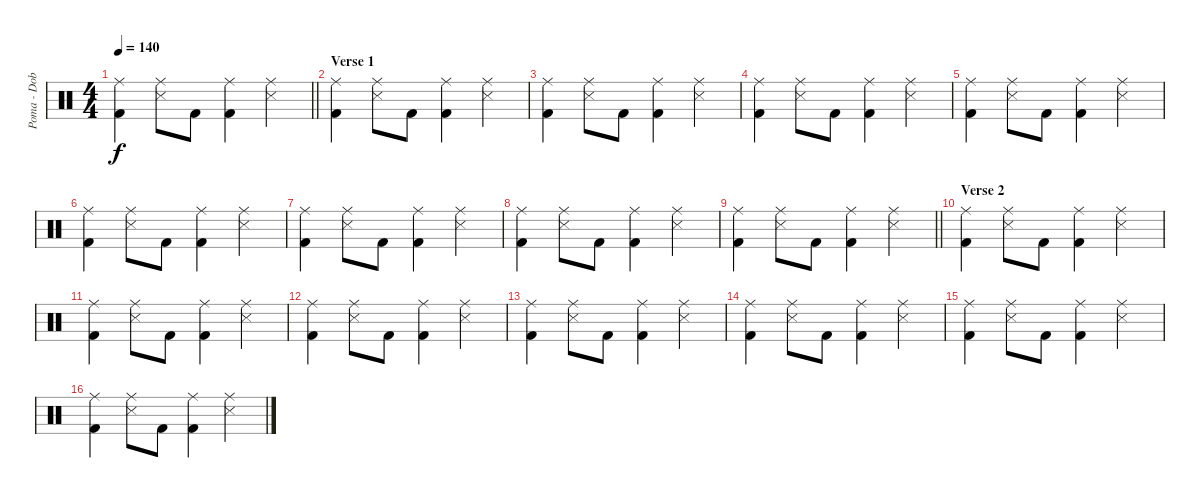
\track ("Poma - Dob" "Poma - Dob") {instrument percussion}
\staff {score}
\articulation defaults
\ts (4 4)
\tempo 140
\clef neutral
\barLineRight lightlight
\ks c
("Ride (middle)" "Kick (hit) 2").4{dy f} ("Ride (middle)" "Snare (side stick) 3").8 "Kick (hit) 2".8 ("Ride (middle)" "Kick (hit) 2").4 ("Ride (middle)" "Snare (side stick) 3").4 |
\section ("" "Verse 1")
("Ride (middle)" "Kick (hit) 2").4 ("Ride (middle)" "Snare (side stick) 3").8 "Kick (hit) 2".8 ("Ride (middle)" "Kick (hit) 2").4 ("Ride (middle)" "Snare (side stick) 3").4 |
("Ride (middle)" "Kick (hit) 2").4 ("Ride (middle)" "Snare (side stick) 3").8 "Kick (hit) 2".8 ("Ride (middle)" "Kick (hit) 2").4 ("Ride (middle)" "Snare (side stick) 3").4 |
("Ride (middle)" "Kick (hit) 2").4 ("Ride (middle)" "Snare (side stick) 3").8 "Kick (hit) 2".8 ("Ride (middle)" "Kick (hit) 2").4 ("Ride (middle)" "Snare (side stick) 3").4 |
("Ride (middle)" "Kick (hit) 2").4 ("Ride (middle)" "Snare (side stick) 3").8 "Kick (hit) 2".8 ("Ride (middle)" "Kick (hit) 2").4 ("Ride (middle)" "Snare (side stick) 3").4 |
("Ride (middle)" "Kick (hit) 2").4 ("Ride (middle)" "Snare (side stick) 3").8 "Kick (hit) 2".8 ("Ride (middle)" "Kick (hit) 2").4 ("Ride (middle)" "Snare (side stick) 3").4 |
("Ride (middle)" "Kick (hit) 2").4 ("Ride (middle)" "Snare (side stick) 3").8 "Kick (hit) 2".8 ("Ride (middle)" "Kick (hit) 2").4 ("Ride (middle)" "Snare (side stick) 3").4 |
("Ride (middle)" "Kick (hit) 2").4 ("Ride (middle)" "Snare (side stick) 3").8 "Kick (hit) 2".8 ("Ride (middle)" "Kick (hit) 2").4 ("Ride (middle)" "Snare (side stick) 3").4 |
\barLineRight lightlight
("Ride (middle)" "Kick (hit) 2").4 ("Ride (middle)" "Snare (side stick) 3").8 "Kick (hit) 2".8 ("Ride (middle)" "Kick (hit) 2").4 ("Ride (middle)" "Snare (side stick) 3").4 |
\section ("" "Verse 2")
("Ride (middle)" "Kick (hit) 2").4 ("Ride (middle)" "Snare (side stick) 3").8 "Kick (hit) 2".8 ("Ride (middle)" "Kick (hit) 2").4 ("Ride (middle)" "Snare (side stick) 3").4 |
("Ride (middle)" "Kick (hit) 2").4 ("Ride (middle)" "Snare (side stick) 3").8 "Kick (hit) 2".8 ("Ride (middle)" "Kick (hit) 2").4 ("Ride (middle)" "Snare (side stick) 3").4 |
("Ride (middle)" "Kick (hit) 2").4 ("Ride (middle)" "Snare (side stick) 3").8 "Kick (hit) 2".8 ("Ride (middle)" "Kick (hit) 2").4 ("Ride (middle)" "Snare (side stick) 3").4 |
("Ride (middle)" "Kick (hit) 2").4 ("Ride (middle)" "Snare (side stick) 3").8 "Kick (hit) 2".8 ("Ride (middle)" "Kick (hit) 2").4 ("Ride (middle)" "Snare (side stick) 3").4 |
("Ride (middle)" "Kick (hit) 2").4 ("Ride (middle)" "Snare (side stick) 3").8 "Kick (hit) 2".8 ("Ride (middle)" "Kick (hit) 2").4 ("Ride (middle)" "Snare (side stick) 3").4 |
("Ride (middle)" "Kick (hit) 2").4 ("Ride (middle)" "Snare (side stick) 3").8 "Kick (hit) 2".8 ("Ride (middle)" "Kick (hit) 2").4 ("Ride (middle)" "Snare (side stick) 3").4 |
("Ride (middle)" "Kick (hit) 2").4 ("Ride (middle)" "Snare (side stick) 3").8 "Kick (hit) 2".8 ("Ride (middle)" "Kick (hit) 2").4 ("Ride (middle)" "Snare (side stick) 3").4
